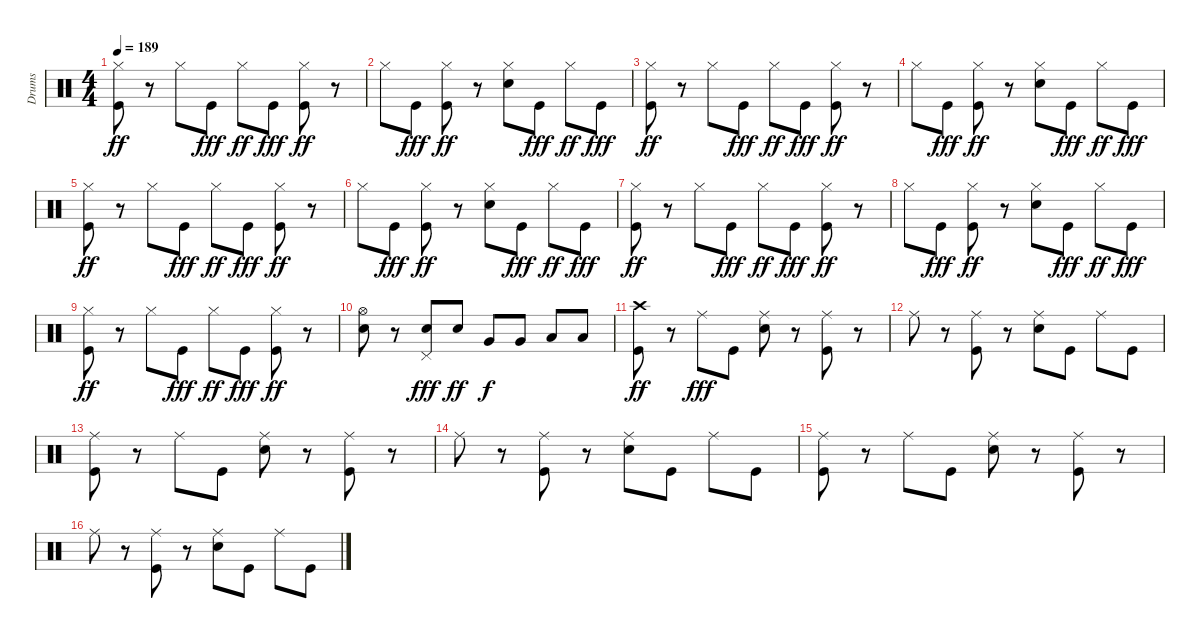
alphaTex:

\track ("Drums" "Drums") {instrument percussion}
\staff {score}
\articulation defaults
\ts (4 4)
\tempo 189
\clef neutral
\ks c
("Kick (hit)" "Hi-Hat (closed)").8{dy ff} r.8 "Hi-Hat (closed)".8 "Kick (hit)".8{dy fff} "Hi-Hat (closed)".8{dy ff} "Kick (hit)".8{dy fff} ("Kick (hit)" "Hi-Hat (closed)").8{dy ff} r.8 |
"Hi-Hat (closed)".8 "Kick (hit)".8{dy fff} ("Kick (hit)" "Hi-Hat (closed)").8{dy ff} r.8 ("Snare (hit) 2" "Hi-Hat (closed)").8 "Kick (hit)".8{dy fff} "Hi-Hat (closed)".8{dy ff} "Kick (hit)".8{dy fff} |
("Kick (hit)" "Hi-Hat (closed)").8{dy ff} r.8 "Hi-Hat (closed)".8 "Kick (hit)".8{dy fff} "Hi-Hat (closed)".8{dy ff} "Kick (hit)".8{dy fff} ("Kick (hit)" "Hi-Hat (closed)").8{dy ff} r.8 |
"Hi-Hat (closed)".8 "Kick (hit)".8{dy fff} ("Kick (hit)" "Hi-Hat (closed)").8{dy ff} r.8 ("Snare (hit) 2" "Hi-Hat (closed)").8 "Kick (hit)".8{dy fff} "Hi-Hat (closed)".8{dy ff} "Kick (hit)".8{dy fff} |
("Kick (hit)" "Hi-Hat (closed)").8{dy ff} r.8 "Hi-Hat (closed)".8 "Kick (hit)".8{dy fff} "Hi-Hat (closed)".8{dy ff} "Kick (hit)".8{dy fff} ("Kick (hit)" "Hi-Hat (closed)").8{dy ff} r.8 |
"Hi-Hat (closed)".8 "Kick (hit)".8{dy fff} ("Kick (hit)" "Hi-Hat (closed)").8{dy ff} r.8 ("Snare (hit) 2" "Hi-Hat (closed)").8 "Kick (hit)".8{dy fff} "Hi-Hat (closed)".8{dy ff} "Kick (hit)".8{dy fff} |
("Kick (hit)" "Hi-Hat (closed)").8{dy ff} r.8 "Hi-Hat (closed)".8 "Kick (hit)".8{dy fff} "Hi-Hat (closed)".8{dy ff} "Kick (hit)".8{dy fff} ("Kick (hit)" "Hi-Hat (closed)").8{dy ff} r.8 |
"Hi-Hat (closed)".8 "Kick (hit)".8{dy fff} ("Kick (hit)" "Hi-Hat (closed)").8{dy ff} r.8 ("Snare (hit) 2" "Hi-Hat (closed)").8 "Kick (hit)".8{dy fff} "Hi-Hat (closed)".8{dy ff} "Kick (hit)".8{dy fff} |
("Kick (hit)" "Hi-Hat (closed)").8{dy ff} r.8 "Hi-Hat (closed)".8 "Kick (hit)".8{dy fff} "Hi-Hat (closed)".8{dy ff} "Kick (hit)".8{dy fff} ("Kick (hit)" "Hi-Hat (closed)").8{dy ff} r.8 |
("Snare (hit) 2" "Hi-Hat (open)").8 r.8 ("Snare (hit) 2" "Pedal Hi-Hat (hit)").8{dy fff} "Snare (hit) 2".8{dy ff} "Very Low Tom (hit)".8{dy f} "Very Low Tom (hit)".8 "Low Floor Tom (hit)".8 "Low Floor Tom (hit)".8 |
("Kick (hit)" "Crash high (hit)").8{dy ff} r.8 "Ride (middle)".8{dy fff} "Kick (hit)".8 ("Snare (hit) 2" "Ride (middle)").8 r.8 ("Kick (hit)" "Ride (middle)").8 r.8 |
"Ride (middle)".8 r.8 ("Kick (hit)" "Ride (middle)").8 r.8 ("Snare (hit) 2" "Ride (middle)").8 "Kick (hit)".8 "Ride (middle)".8 "Kick (hit)".8 |
("Kick (hit)" "Ride (middle)").8 r.8 "Ride (middle)".8 "Kick (hit)".8 ("Snare (hit) 2" "Ride (middle)").8 r.8 ("Kick (hit)" "Ride (middle)").8 r.8 |
"Ride (middle)".8 r.8 ("Kick (hit)" "Ride (middle)").8 r.8 ("Snare (hit) 2" "Ride (middle)").8 "Kick (hit)".8 "Ride (middle)".8 "Kick (hit)".8 |
("Kick (hit)" "Ride (middle)").8 r.8 "Ride (middle)".8 "Kick (hit)".8 ("Snare (hit) 2" "Ride (middle)").8 r.8 ("Kick (hit)" "Ride (middle)").8 r.8 |
"Ride (middle)".8 r.8 ("Kick (hit)" "Ride (middle)").8 r.8 ("Snare (hit) 2" "Ride (middle)").8 "Kick (hit)".8 "Ride (middle)".8 "Kick (hit)".8
